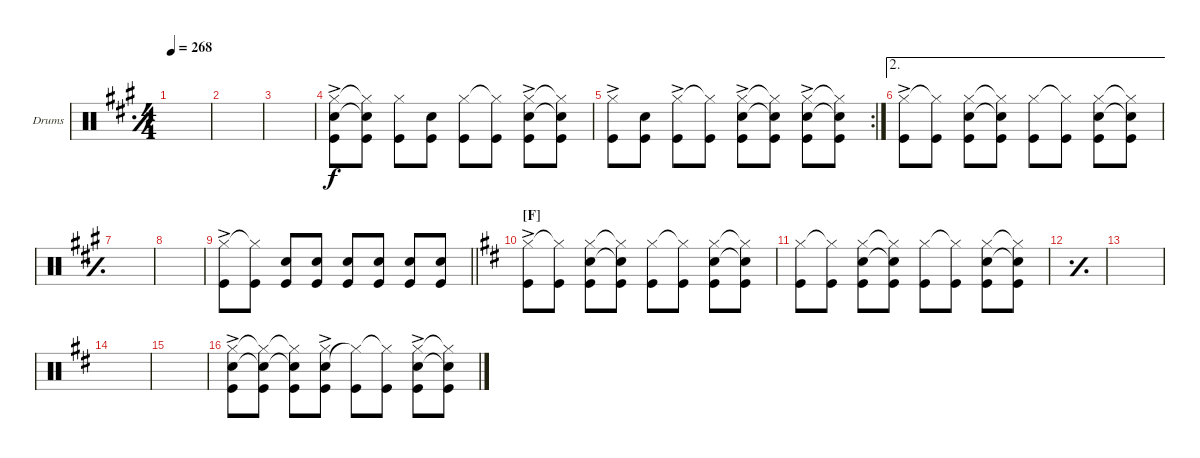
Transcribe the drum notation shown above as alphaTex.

\defaultSystemsLayout 4
\bracketExtendMode groupsimilarinstruments
\firstSystemTrackNameOrientation horizontal
\otherSystemsTrackNameOrientation horizontal
\track ("Stefan Kaufmann" "Drums") {instrument percussion}
\staff {score}
\articulation defaults
\ts (4 4)
\tempo 268
\clef neutral
\simile simple
\ks a
|
|
|
("Kick (hit)"{ac} "Snare (hit) 2"{ac} "Hi-Hat (closed)"{ac}).8 ("Kick (hit)" "Snare (hit) 2"{t} "Hi-Hat (closed)"{t}).8 ("Kick (hit)" "Hi-Hat (closed)").8 ("Kick (hit)" "Snare (hit) 2").8 ("Kick (hit)" "Hi-Hat (closed)").8 ("Kick (hit)" "Hi-Hat (closed)"{t}).8 ("Kick (hit)"{ac} "Hi-Hat (closed)"{ac} "Snare (hit) 2"{ac}).8 ("Kick (hit)" "Hi-Hat (closed)"{t} "Snare (hit) 2"{t}).8 |
\rc 2
("Kick (hit)" "Hi-Hat (closed)"{ac}).8 ("Kick (hit)" "Snare (hit) 2").8 ("Kick (hit)" "Hi-Hat (closed)"{ac}).8 ("Kick (hit)" "Hi-Hat (closed)"{t}).8 ("Kick (hit)" "Hi-Hat (closed)"{ac} "Snare (hit) 2").8 ("Kick (hit)" "Hi-Hat (closed)"{t} "Snare (hit) 2"{t}).8 ("Kick (hit)" "Hi-Hat (closed)"{ac} "Snare (hit) 2").8 ("Kick (hit)" "Hi-Hat (closed)"{t} "Snare (hit) 2"{t}).8 |
\ae 2
("Kick (hit)" "Hi-Hat (closed)"{ac}).8 ("Kick (hit)" "Hi-Hat (closed)"{t}).8 ("Kick (hit)" "Hi-Hat (closed)" "Snare (hit) 2").8 ("Kick (hit)" "Hi-Hat (closed)"{t} "Snare (hit) 2"{t}).8 ("Kick (hit)" "Hi-Hat (closed)").8 ("Kick (hit)" "Hi-Hat (closed)"{t}).8 ("Kick (hit)" "Hi-Hat (closed)" "Snare (hit) 2").8 ("Kick (hit)" "Hi-Hat (closed)"{t} "Snare (hit) 2"{t}).8 |
\simile simple
|
|
\simile none
\barLineRight lightlight
("Kick (hit)" "Hi-Hat (closed)"{ac}).8 ("Kick (hit)" "Hi-Hat (closed)"{t}).8 ("Kick (hit)" "Snare (hit) 2").8 ("Kick (hit)" "Snare (hit) 2").8 ("Kick (hit)" "Snare (hit) 2").8 ("Kick (hit)" "Snare (hit) 2").8 ("Kick (hit)" "Snare (hit) 2").8 ("Kick (hit)" "Snare (hit) 2").8 |
\section ("F" "")
\ks d
("Kick (hit)" "Hi-Hat (closed)"{ac}).8 ("Kick (hit)" "Hi-Hat (closed)"{t}).8 ("Kick (hit)" "Hi-Hat (closed)" "Snare (hit) 2").8 ("Kick (hit)" "Hi-Hat (closed)"{t} "Snare (hit) 2"{t}).8 ("Kick (hit)" "Hi-Hat (closed)").8 ("Kick (hit)" "Hi-Hat (closed)"{t}).8 ("Kick (hit)" "Hi-Hat (closed)" "Snare (hit) 2").8 ("Kick (hit)" "Hi-Hat (closed)"{t} "Snare (hit) 2"{t}).8 |
("Kick (hit)" "Hi-Hat (closed)").8 ("Kick (hit)" "Hi-Hat (closed)"{t}).8 ("Kick (hit)" "Hi-Hat (closed)" "Snare (hit) 2").8 ("Kick (hit)" "Hi-Hat (closed)"{t} "Snare (hit) 2"{t}).8 ("Kick (hit)" "Hi-Hat (closed)").8 ("Kick (hit)" "Hi-Hat (closed)"{t}).8 ("Kick (hit)" "Hi-Hat (closed)" "Snare (hit) 2").8 ("Kick (hit)" "Hi-Hat (closed)"{t} "Snare (hit) 2"{t}).8 |
\simile simple
|
|
|
|
\simile none
("Kick (hit)"{ac} "Snare (hit) 2"{ac} "Hi-Hat (closed)"{ac}).8 ("Kick (hit)" "Snare (hit) 2"{t} "Hi-Hat (closed)"{t}).8 ("Kick (hit)" "Snare (hit) 2"{t} "Hi-Hat (closed)"{t}).8 ("Kick (hit)"{ac} "Snare (hit) 2"{ac} "Hi-Hat (closed)"{ac}).8 ("Kick (hit)" "Hi-Hat (closed)"{t}).8 ("Kick (hit)" "Hi-Hat (closed)"{t}).8 ("Kick (hit)"{ac} "Hi-Hat (closed)"{ac} "Snare (hit) 2"{ac}).8 ("Kick (hit)" "Hi-Hat (closed)"{t} "Snare (hit) 2"{t}).8
